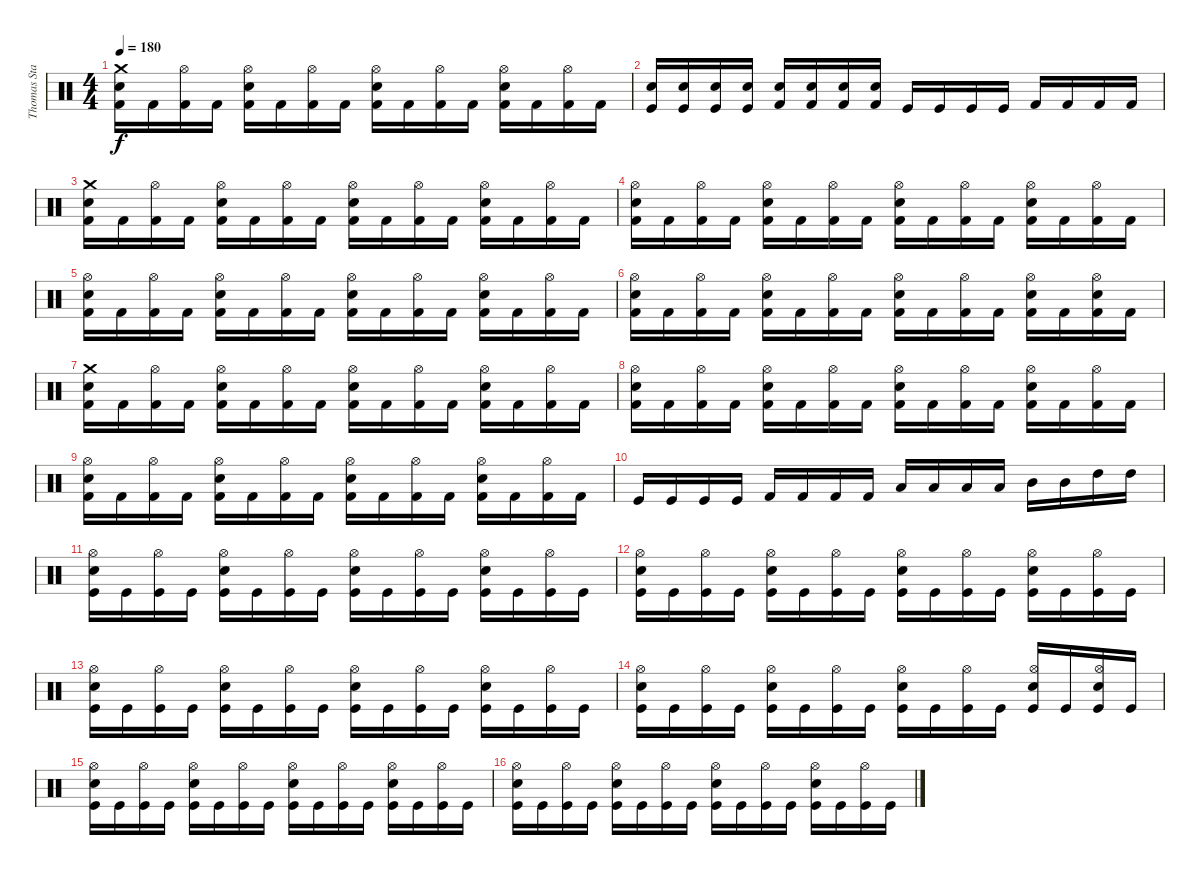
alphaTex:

\track ("Thomas Stauch" "Thomas Sta") {instrument percussion}
\staff {score}
\articulation defaults
\ts (4 4)
\tempo 180
\clef neutral
\ks c
("Kick (hit) 2" "Snare (hit) 2" "Crash medium (hit)").16{dy f} "Kick (hit) 2".16 ("Kick (hit) 2" "Hi-Hat (open)").16 "Kick (hit) 2".16 ("Kick (hit) 2" "Snare (hit) 2" "Hi-Hat (open)").16 "Kick (hit) 2".16 ("Kick (hit) 2" "Hi-Hat (open)").16 "Kick (hit) 2".16 ("Kick (hit) 2" "Snare (hit) 2" "Hi-Hat (open)").16 "Kick (hit) 2".16 ("Kick (hit) 2" "Hi-Hat (open)").16 "Kick (hit) 2".16 ("Kick (hit) 2" "Snare (hit) 2" "Hi-Hat (open)").16 "Kick (hit) 2".16 ("Kick (hit) 2" "Hi-Hat (open)").16 "Kick (hit) 2".16 |
("Kick (hit)" "Snare (hit) 2").16 ("Kick (hit)" "Snare (hit) 2").16 ("Kick (hit)" "Snare (hit) 2").16 ("Kick (hit)" "Snare (hit) 2").16 ("Kick (hit) 2" "Snare (hit) 2").16 ("Kick (hit) 2" "Snare (hit) 2").16 ("Kick (hit) 2" "Snare (hit) 2").16 ("Kick (hit) 2" "Snare (hit) 2").16 "Kick (hit)".16 "Kick (hit)".16 "Kick (hit)".16 "Kick (hit)".16 "Kick (hit) 2".16 "Kick (hit) 2".16 "Kick (hit) 2".16 "Kick (hit) 2".16 |
("Kick (hit) 2" "Snare (hit) 2" "Crash medium (hit)").16 "Kick (hit) 2".16 ("Kick (hit) 2" "Hi-Hat (open)").16 "Kick (hit) 2".16 ("Kick (hit) 2" "Snare (hit) 2" "Hi-Hat (open)").16 "Kick (hit) 2".16 ("Kick (hit) 2" "Hi-Hat (open)").16 "Kick (hit) 2".16 ("Kick (hit) 2" "Snare (hit) 2" "Hi-Hat (open)").16 "Kick (hit) 2".16 ("Kick (hit) 2" "Hi-Hat (open)").16 "Kick (hit) 2".16 ("Kick (hit) 2" "Snare (hit) 2" "Hi-Hat (open)").16 "Kick (hit) 2".16 ("Kick (hit) 2" "Hi-Hat (open)").16 "Kick (hit) 2".16 |
("Kick (hit) 2" "Snare (hit) 2" "Hi-Hat (open)").16 "Kick (hit) 2".16 ("Kick (hit) 2" "Hi-Hat (open)").16 "Kick (hit) 2".16 ("Kick (hit) 2" "Snare (hit) 2" "Hi-Hat (open)").16 "Kick (hit) 2".16 ("Kick (hit) 2" "Hi-Hat (open)").16 "Kick (hit) 2".16 ("Kick (hit) 2" "Snare (hit) 2" "Hi-Hat (open)").16 "Kick (hit) 2".16 ("Kick (hit) 2" "Hi-Hat (open)").16 "Kick (hit) 2".16 ("Kick (hit) 2" "Snare (hit) 2" "Hi-Hat (open)").16 "Kick (hit) 2".16 ("Kick (hit) 2" "Hi-Hat (open)").16 "Kick (hit) 2".16 |
("Kick (hit) 2" "Snare (hit) 2" "Hi-Hat (open)").16 "Kick (hit) 2".16 ("Kick (hit) 2" "Hi-Hat (open)").16 "Kick (hit) 2".16 ("Kick (hit) 2" "Snare (hit) 2" "Hi-Hat (open)").16 "Kick (hit) 2".16 ("Kick (hit) 2" "Hi-Hat (open)").16 "Kick (hit) 2".16 ("Kick (hit) 2" "Snare (hit) 2" "Hi-Hat (open)").16 "Kick (hit) 2".16 ("Kick (hit) 2" "Hi-Hat (open)").16 "Kick (hit) 2".16 ("Kick (hit) 2" "Snare (hit) 2" "Hi-Hat (open)").16 "Kick (hit) 2".16 ("Kick (hit) 2" "Hi-Hat (open)").16 "Kick (hit) 2".16 |
("Kick (hit) 2" "Snare (hit) 2" "Hi-Hat (open)").16 "Kick (hit) 2".16 ("Kick (hit) 2" "Hi-Hat (open)").16 "Kick (hit) 2".16 ("Kick (hit) 2" "Snare (hit) 2" "Hi-Hat (open)").16 "Kick (hit) 2".16 ("Kick (hit) 2" "Hi-Hat (open)").16 "Kick (hit) 2".16 ("Kick (hit) 2" "Snare (hit) 2" "Hi-Hat (open)").16 "Kick (hit) 2".16 ("Kick (hit) 2" "Hi-Hat (open)").16 "Kick (hit) 2".16 ("Kick (hit) 2" "Snare (hit) 2" "Hi-Hat (open)").16 "Kick (hit) 2".16 ("Kick (hit) 2" "Snare (hit) 2" "Hi-Hat (open)").16 "Kick (hit) 2".16 |
("Kick (hit) 2" "Snare (hit) 2" "Crash medium (hit)").16 "Kick (hit) 2".16 ("Kick (hit) 2" "Hi-Hat (open)").16 "Kick (hit) 2".16 ("Kick (hit) 2" "Snare (hit) 2" "Hi-Hat (open)").16 "Kick (hit) 2".16 ("Kick (hit) 2" "Hi-Hat (open)").16 "Kick (hit) 2".16 ("Kick (hit) 2" "Snare (hit) 2" "Hi-Hat (open)").16 "Kick (hit) 2".16 ("Kick (hit) 2" "Hi-Hat (open)").16 "Kick (hit) 2".16 ("Kick (hit) 2" "Snare (hit) 2" "Hi-Hat (open)").16 "Kick (hit) 2".16 ("Kick (hit) 2" "Hi-Hat (open)").16 "Kick (hit) 2".16 |
("Kick (hit) 2" "Snare (hit) 2" "Hi-Hat (open)").16 "Kick (hit) 2".16 ("Kick (hit) 2" "Hi-Hat (open)").16 "Kick (hit) 2".16 ("Kick (hit) 2" "Snare (hit) 2" "Hi-Hat (open)").16 "Kick (hit) 2".16 ("Kick (hit) 2" "Hi-Hat (open)").16 "Kick (hit) 2".16 ("Kick (hit) 2" "Snare (hit) 2" "Hi-Hat (open)").16 "Kick (hit) 2".16 ("Kick (hit) 2" "Hi-Hat (open)").16 "Kick (hit) 2".16 ("Kick (hit) 2" "Snare (hit) 2" "Hi-Hat (open)").16 "Kick (hit) 2".16 ("Kick (hit) 2" "Hi-Hat (open)").16 "Kick (hit) 2".16 |
("Kick (hit) 2" "Snare (hit) 2" "Hi-Hat (open)").16 "Kick (hit) 2".16 ("Kick (hit) 2" "Hi-Hat (open)").16 "Kick (hit) 2".16 ("Kick (hit) 2" "Snare (hit) 2" "Hi-Hat (open)").16 "Kick (hit) 2".16 ("Kick (hit) 2" "Hi-Hat (open)").16 "Kick (hit) 2".16 ("Kick (hit) 2" "Snare (hit) 2" "Hi-Hat (open)").16 "Kick (hit) 2".16 ("Kick (hit) 2" "Hi-Hat (open)").16 "Kick (hit) 2".16 ("Kick (hit) 2" "Snare (hit) 2" "Hi-Hat (open)").16 "Kick (hit) 2".16 ("Kick (hit) 2" "Hi-Hat (open)").16 "Kick (hit) 2".16 |
"Kick (hit)".16 "Kick (hit)".16 "Kick (hit)".16 "Kick (hit)".16 "Kick (hit) 2".16 "Kick (hit) 2".16 "Kick (hit) 2".16 "Kick (hit) 2".16 "Low Tom (hit)".16 "Low Tom (hit)".16 "Low Tom (hit)".16 "Low Tom (hit)".16 "Mid Tom (hit)".16 "Mid Tom (hit)".16 "High Tom (hit)".16 "High Tom (hit)".16 |
("Kick (hit)" "Snare (hit) 2" "Hi-Hat (open)").16 "Kick (hit)".16 ("Kick (hit)" "Hi-Hat (open)").16 "Kick (hit)".16 ("Kick (hit)" "Snare (hit) 2" "Hi-Hat (open)").16 "Kick (hit)".16 ("Kick (hit)" "Hi-Hat (open)").16 "Kick (hit)".16 ("Kick (hit)" "Snare (hit) 2" "Hi-Hat (open)").16 "Kick (hit)".16 ("Kick (hit)" "Hi-Hat (open)").16 "Kick (hit)".16 ("Kick (hit)" "Snare (hit) 2" "Hi-Hat (open)").16 "Kick (hit)".16 ("Kick (hit)" "Hi-Hat (open)").16 "Kick (hit)".16 |
("Kick (hit)" "Snare (hit) 2" "Hi-Hat (open)").16 "Kick (hit)".16 ("Kick (hit)" "Hi-Hat (open)").16 "Kick (hit)".16 ("Kick (hit)" "Snare (hit) 2" "Hi-Hat (open)").16 "Kick (hit)".16 ("Kick (hit)" "Hi-Hat (open)").16 "Kick (hit)".16 ("Kick (hit)" "Snare (hit) 2" "Hi-Hat (open)").16 "Kick (hit)".16 ("Kick (hit)" "Hi-Hat (open)").16 "Kick (hit)".16 ("Kick (hit)" "Snare (hit) 2" "Hi-Hat (open)").16 "Kick (hit)".16 ("Kick (hit)" "Hi-Hat (open)").16 "Kick (hit)".16 |
("Kick (hit)" "Snare (hit) 2" "Hi-Hat (open)").16 "Kick (hit)".16 ("Kick (hit)" "Hi-Hat (open)").16 "Kick (hit)".16 ("Kick (hit)" "Snare (hit) 2" "Hi-Hat (open)").16 "Kick (hit)".16 ("Kick (hit)" "Hi-Hat (open)").16 "Kick (hit)".16 ("Kick (hit)" "Snare (hit) 2" "Hi-Hat (open)").16 "Kick (hit)".16 ("Kick (hit)" "Hi-Hat (open)").16 "Kick (hit)".16 ("Kick (hit)" "Snare (hit) 2" "Hi-Hat (open)").16 "Kick (hit)".16 ("Kick (hit)" "Hi-Hat (open)").16 "Kick (hit)".16 |
("Kick (hit)" "Snare (hit) 2" "Hi-Hat (open)").16 "Kick (hit)".16 ("Kick (hit)" "Hi-Hat (open)").16 "Kick (hit)".16 ("Kick (hit)" "Snare (hit) 2" "Hi-Hat (open)").16 "Kick (hit)".16 ("Kick (hit)" "Hi-Hat (open)").16 "Kick (hit)".16 ("Kick (hit)" "Snare (hit) 2" "Hi-Hat (open)").16 "Kick (hit)".16 ("Kick (hit)" "Hi-Hat (open)").16 "Kick (hit)".16 ("Kick (hit)" "Snare (hit) 2" "Hi-Hat (open)").16 "Kick (hit)".16 ("Kick (hit)" "Snare (hit) 2" "Hi-Hat (open)").16 "Kick (hit)".16 |
("Kick (hit)" "Snare (hit) 2" "Hi-Hat (open)").16 "Kick (hit)".16 ("Kick (hit)" "Hi-Hat (open)").16 "Kick (hit)".16 ("Kick (hit)" "Snare (hit) 2" "Hi-Hat (open)").16 "Kick (hit)".16 ("Kick (hit)" "Hi-Hat (open)").16 "Kick (hit)".16 ("Kick (hit)" "Snare (hit) 2" "Hi-Hat (open)").16 "Kick (hit)".16 ("Kick (hit)" "Hi-Hat (open)").16 "Kick (hit)".16 ("Kick (hit)" "Snare (hit) 2" "Hi-Hat (open)").16 "Kick (hit)".16 ("Kick (hit)" "Hi-Hat (open)").16 "Kick (hit)".16 |
("Kick (hit)" "Snare (hit) 2" "Hi-Hat (open)").16 "Kick (hit)".16 ("Kick (hit)" "Hi-Hat (open)").16 "Kick (hit)".16 ("Kick (hit)" "Snare (hit) 2" "Hi-Hat (open)").16 "Kick (hit)".16 ("Kick (hit)" "Hi-Hat (open)").16 "Kick (hit)".16 ("Kick (hit)" "Snare (hit) 2" "Hi-Hat (open)").16 "Kick (hit)".16 ("Kick (hit)" "Hi-Hat (open)").16 "Kick (hit)".16 ("Kick (hit)" "Snare (hit) 2" "Hi-Hat (open)").16 "Kick (hit)".16 ("Kick (hit)" "Hi-Hat (open)").16 "Kick (hit)".16
